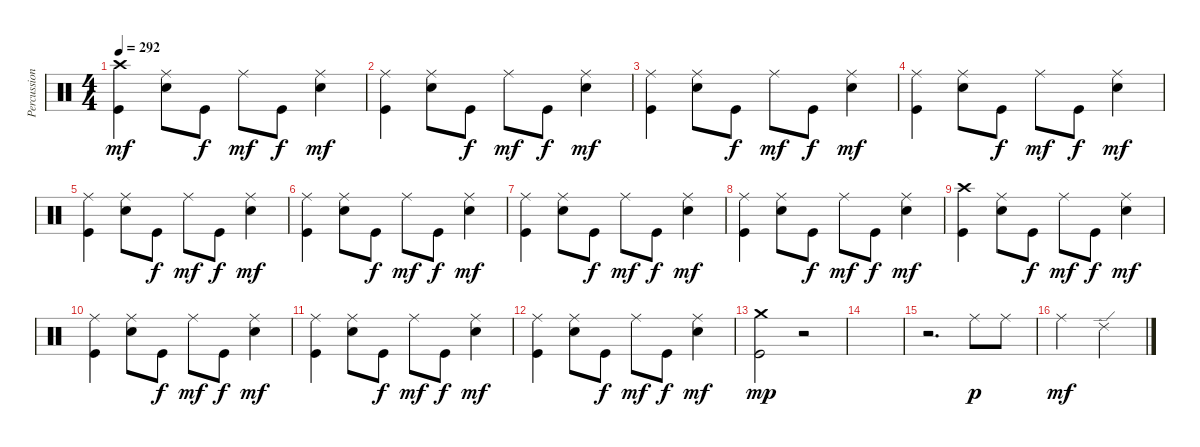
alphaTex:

\track ("Percussion" "Percussion") {instrument percussion}
\staff {score}
\articulation defaults
\ts (4 4)
\section ("" "")
\tempo 292
\clef neutral
\ks c
("Crash high (hit)" "Kick (hit)").4{dy mf} ("Ride (middle)" "Electric Snare (hit)").8 "Kick (hit)".8{dy f} "Ride (middle)".8{dy mf} "Kick (hit)".8{dy f} ("Ride (middle)" "Electric Snare (hit)").4{dy mf} |
("Ride (middle)" "Kick (hit)").4 ("Ride (middle)" "Electric Snare (hit)").8 "Kick (hit)".8{dy f} "Ride (middle)".8{dy mf} "Kick (hit)".8{dy f} ("Ride (middle)" "Electric Snare (hit)").4{dy mf} |
("Ride (middle)" "Kick (hit)").4 ("Ride (middle)" "Electric Snare (hit)").8 "Kick (hit)".8{dy f} "Ride (middle)".8{dy mf} "Kick (hit)".8{dy f} ("Ride (middle)" "Electric Snare (hit)").4{dy mf} |
("Ride (middle)" "Kick (hit)").4 ("Ride (middle)" "Electric Snare (hit)").8 "Kick (hit)".8{dy f} "Ride (middle)".8{dy mf} "Kick (hit)".8{dy f} ("Ride (middle)" "Electric Snare (hit)").4{dy mf} |
("Ride (middle)" "Kick (hit)").4 ("Ride (middle)" "Electric Snare (hit)").8 "Kick (hit)".8{dy f} "Ride (middle)".8{dy mf} "Kick (hit)".8{dy f} ("Ride (middle)" "Electric Snare (hit)").4{dy mf} |
("Ride (middle)" "Kick (hit)").4 ("Ride (middle)" "Electric Snare (hit)").8 "Kick (hit)".8{dy f} "Ride (middle)".8{dy mf} "Kick (hit)".8{dy f} ("Ride (middle)" "Electric Snare (hit)").4{dy mf} |
("Ride (middle)" "Kick (hit)").4 ("Ride (middle)" "Electric Snare (hit)").8 "Kick (hit)".8{dy f} "Ride (middle)".8{dy mf} "Kick (hit)".8{dy f} ("Ride (middle)" "Electric Snare (hit)").4{dy mf} |
("Ride (middle)" "Kick (hit)").4 ("Ride (middle)" "Electric Snare (hit)").8 "Kick (hit)".8{dy f} "Ride (middle)".8{dy mf} "Kick (hit)".8{dy f} ("Ride (middle)" "Electric Snare (hit)").4{dy mf} |
("Crash high (hit)" "Kick (hit)").4 ("Ride (middle)" "Electric Snare (hit)").8 "Kick (hit)".8{dy f} "Ride (middle)".8{dy mf} "Kick (hit)".8{dy f} ("Ride (middle)" "Electric Snare (hit)").4{dy mf} |
("Ride (middle)" "Kick (hit)").4 ("Ride (middle)" "Electric Snare (hit)").8 "Kick (hit)".8{dy f} "Ride (middle)".8{dy mf} "Kick (hit)".8{dy f} ("Ride (middle)" "Electric Snare (hit)").4{dy mf} |
("Ride (middle)" "Kick (hit)").4 ("Ride (middle)" "Electric Snare (hit)").8 "Kick (hit)".8{dy f} "Ride (middle)".8{dy mf} "Kick (hit)".8{dy f} ("Ride (middle)" "Electric Snare (hit)").4{dy mf} |
("Ride (middle)" "Kick (hit)").4 ("Ride (middle)" "Electric Snare (hit)").8 "Kick (hit)".8{dy f} "Ride (middle)".8{dy mf} "Kick (hit)".8{dy f} ("Ride (middle)" "Electric Snare (hit)").4{dy mf} |
("Crash medium (hit)" "Kick (hit)").2{dy mp} r.2 |
|
r.2{d} "Ride (middle)".8{dy p} "Ride (middle)".8 |
"Ride (middle)".2{dy mf} "Ride (edge) 2".2
